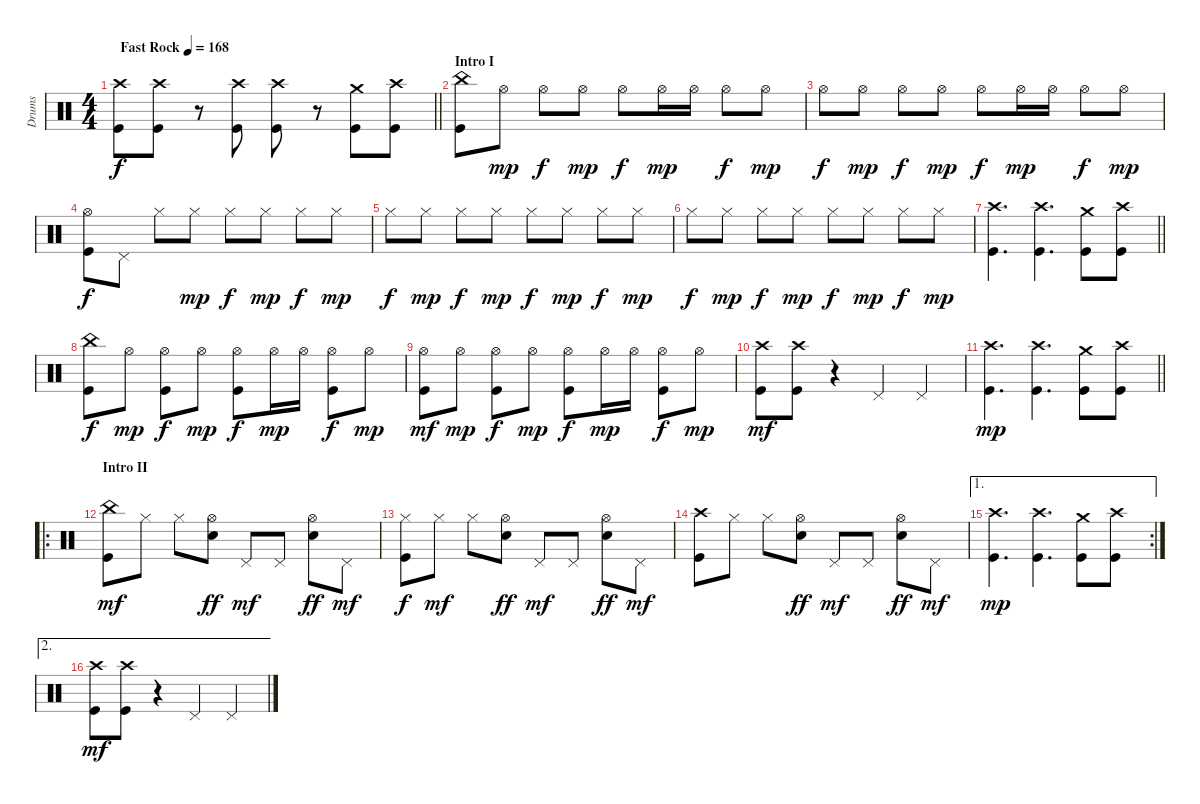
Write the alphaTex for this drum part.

\track ("Drums" "Drums") {instrument percussion}
\staff {score}
\articulation defaults
\ts (4 4)
\tempo (168 "Fast Rock")
\clef neutral
\barLineRight lightlight
\ks c
("Crash high (hit)" "Kick (hit)").8{dy f} ("Crash high (hit)" "Kick (hit)").8 r.8 ("Crash high (hit)" "Kick (hit)").8 ("Crash high (hit)" "Kick (hit)").8 r.8 ("Crash medium (hit)" "Kick (hit)").8 ("Crash high (hit)" "Kick (hit)").8 |
\section ("" "Intro I")
("China (hit)" "Kick (hit)").8 "Hi-Hat (open)".8{dy mp} "Hi-Hat (open)".8{dy f} "Hi-Hat (open)".8{dy mp} "Hi-Hat (open)".8{dy f} "Hi-Hat (open)".16{dy mp} "Hi-Hat (open)".16 "Hi-Hat (open)".8{dy f} "Hi-Hat (open)".8{dy mp} |
"Hi-Hat (open)".8{dy f} "Hi-Hat (open)".8{dy mp} "Hi-Hat (open)".8{dy f} "Hi-Hat (open)".8{dy mp} "Hi-Hat (open)".8{dy f} "Hi-Hat (open)".16{dy mp} "Hi-Hat (open)".16 "Hi-Hat (open)".8{dy f} "Hi-Hat (open)".8{dy mp} |
("Hi-Hat (open)" "Kick (hit)").8{dy f} "Pedal Hi-Hat (hit)".8 "Hi-Hat (closed)".8 "Hi-Hat (closed)".8{dy mp} "Hi-Hat (closed)".8{dy f} "Hi-Hat (closed)".8{dy mp} "Hi-Hat (closed)".8{dy f} "Hi-Hat (closed)".8{dy mp} |
"Hi-Hat (closed)".8{dy f} "Hi-Hat (closed)".8{dy mp} "Hi-Hat (closed)".8{dy f} "Hi-Hat (closed)".8{dy mp} "Hi-Hat (closed)".8{dy f} "Hi-Hat (closed)".8{dy mp} "Hi-Hat (closed)".8{dy f} "Hi-Hat (closed)".8{dy mp} |
"Hi-Hat (closed)".8{dy f} "Hi-Hat (closed)".8{dy mp} "Hi-Hat (closed)".8{dy f} "Hi-Hat (closed)".8{dy mp} "Hi-Hat (closed)".8{dy f} "Hi-Hat (closed)".8{dy mp} "Hi-Hat (closed)".8{dy f} "Hi-Hat (closed)".8{dy mp} |
\barLineRight lightlight
("Crash high (hit)" "Kick (hit)").4{d} ("Crash high (hit)" "Kick (hit)").4{d} ("Crash medium (hit)" "Kick (hit)").8 ("Crash high (hit)" "Kick (hit)").8 |
("China (hit)" "Kick (hit)").8{dy f} "Hi-Hat (open)".8{dy mp} ("Hi-Hat (open)" "Kick (hit)").8{dy f} "Hi-Hat (open)".8{dy mp} ("Hi-Hat (open)" "Kick (hit)").8{dy f} "Hi-Hat (open)".16{dy mp} "Hi-Hat (open)".16 ("Hi-Hat (open)" "Kick (hit)").8{dy f} "Hi-Hat (open)".8{dy mp} |
("Hi-Hat (open)" "Kick (hit)").8{dy mf} "Hi-Hat (open)".8{dy mp} ("Hi-Hat (open)" "Kick (hit)").8{dy f} "Hi-Hat (open)".8{dy mp} ("Hi-Hat (open)" "Kick (hit)").8{dy f} "Hi-Hat (open)".16{dy mp} "Hi-Hat (open)".16 ("Hi-Hat (open)" "Kick (hit)").8{dy f} "Hi-Hat (open)".8{dy mp} |
("Crash high (hit)" "Kick (hit)").8{dy mf} ("Crash high (hit)" "Kick (hit)").8 r.4 "Pedal Hi-Hat (hit)".4 "Pedal Hi-Hat (hit)".4 |
\barLineRight lightlight
("Crash high (hit)" "Kick (hit)").4{d dy mp} ("Crash high (hit)" "Kick (hit)").4{d} ("Crash medium (hit)" "Kick (hit)").8 ("Crash high (hit)" "Kick (hit)").8 |
\ro
\section ("" "Intro II")
("China (hit)" "Kick (hit)").8{dy mf} "Hi-Hat (closed)".8 "Hi-Hat (closed)".8 ("Hi-Hat (open)" "Snare (hit) 2").8{dy ff} "Pedal Hi-Hat (hit)".8{dy mf} "Pedal Hi-Hat (hit)".8 ("Hi-Hat (open)" "Snare (hit) 2").8{dy ff} "Pedal Hi-Hat (hit)".8{dy mf} |
("Hi-Hat (closed)" "Kick (hit)").8{dy f} "Hi-Hat (closed)".8{dy mf} "Hi-Hat (closed)".8 ("Hi-Hat (open)" "Snare (hit) 2").8{dy ff} "Pedal Hi-Hat (hit)".8{dy mf} "Pedal Hi-Hat (hit)".8 ("Hi-Hat (open)" "Snare (hit) 2").8{dy ff} "Pedal Hi-Hat (hit)".8{dy mf} |
("Crash high (hit)" "Kick (hit)").8 "Hi-Hat (closed)".8 "Hi-Hat (closed)".8 ("Hi-Hat (open)" "Snare (hit) 2").8{dy ff} "Pedal Hi-Hat (hit)".8{dy mf} "Pedal Hi-Hat (hit)".8 ("Hi-Hat (open)" "Snare (hit) 2").8{dy ff} "Pedal Hi-Hat (hit)".8{dy mf} |
\ae 1
\rc 2
("Crash high (hit)" "Kick (hit)").4{d dy mp} ("Crash high (hit)" "Kick (hit)").4{d} ("Crash medium (hit)" "Kick (hit)").8 ("Crash high (hit)" "Kick (hit)").8 |
\ae 2
("Crash high (hit)" "Kick (hit)").8{dy mf} ("Crash high (hit)" "Kick (hit)").8 r.4 "Pedal Hi-Hat (hit)".4 "Pedal Hi-Hat (hit)".4
